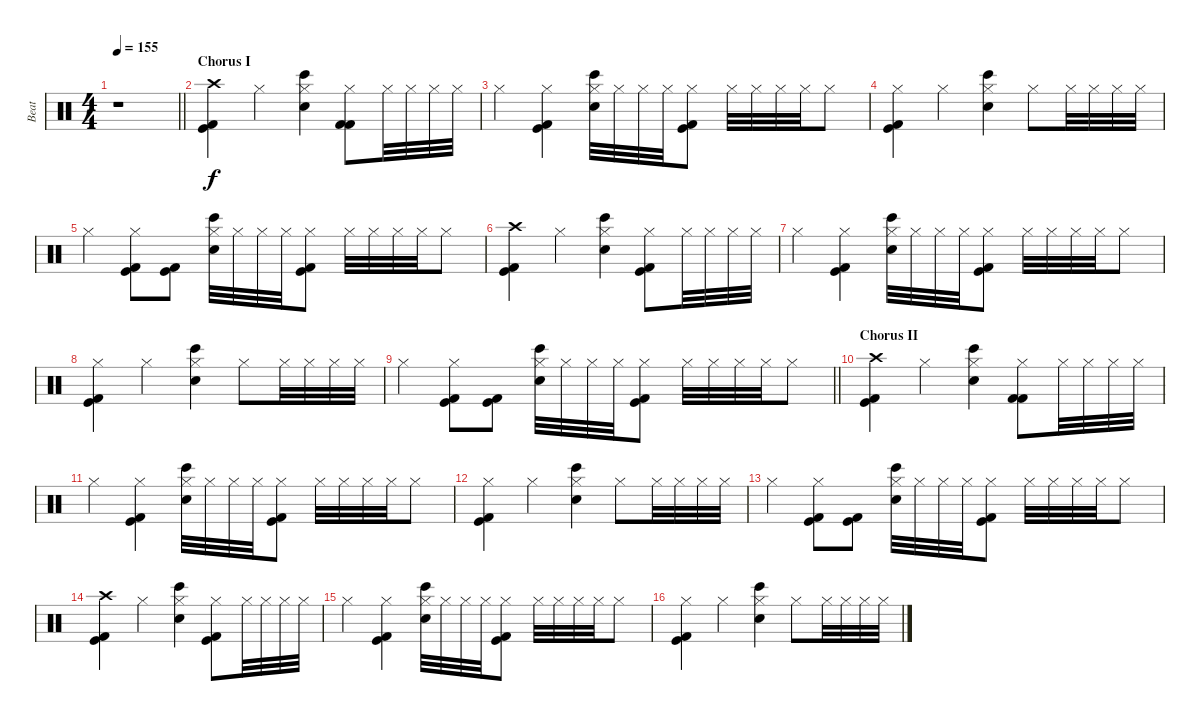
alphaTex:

\track ("Beat" "Beat") {instrument percussion}
\staff {score}
\articulation defaults
\ts (4 4)
\tempo 155
\clef neutral
\barLineRight lightlight
\ks c
r.1{dy f} |
\section ("" "Chorus I")
("Crash high (hit)" "Kick (hit)" "Kick (hit) 2").4 "Hi-Hat (closed)".4 ("Hi-Hat (closed)" "Hand Clap (hit)" "Bongo High (hit)").4 ("Hi-Hat (closed)" "Kick (hit) 2" "Kick (hit) 2").8 "Hi-Hat (closed)".32 "Hi-Hat (closed)".32 "Hi-Hat (closed)".32 "Hi-Hat (closed)".32 |
"Hi-Hat (closed)".4 ("Hi-Hat (closed)" "Kick (hit)" "Kick (hit) 2").4 ("Hi-Hat (closed)" "Hand Clap (hit)" "Bongo High (hit)").32 "Hi-Hat (closed)".32 "Hi-Hat (closed)".32 "Hi-Hat (closed)".32 ("Hi-Hat (closed)" "Kick (hit)" "Kick (hit) 2").8 "Hi-Hat (closed)".32 "Hi-Hat (closed)".32 "Hi-Hat (closed)".32 "Hi-Hat (closed)".32 "Hi-Hat (closed)".8 |
("Hi-Hat (closed)" "Kick (hit)" "Kick (hit) 2").4 "Hi-Hat (closed)".4 ("Hi-Hat (closed)" "Hand Clap (hit)" "Bongo High (hit)").4 "Hi-Hat (closed)".8 "Hi-Hat (closed)".32 "Hi-Hat (closed)".32 "Hi-Hat (closed)".32 "Hi-Hat (closed)".32 |
"Hi-Hat (closed)".4 ("Hi-Hat (closed)" "Kick (hit)" "Kick (hit) 2").8 ("Kick (hit)" "Kick (hit) 2").8 ("Hi-Hat (closed)" "Hand Clap (hit)" "Bongo High (hit)").32 "Hi-Hat (closed)".32 "Hi-Hat (closed)".32 "Hi-Hat (closed)".32 ("Hi-Hat (closed)" "Kick (hit)" "Kick (hit) 2").8 "Hi-Hat (closed)".32 "Hi-Hat (closed)".32 "Hi-Hat (closed)".32 "Hi-Hat (closed)".32 "Hi-Hat (closed)".8 |
("Crash high (hit)" "Kick (hit)" "Kick (hit) 2").4 "Hi-Hat (closed)".4 ("Hi-Hat (closed)" "Hand Clap (hit)" "Bongo High (hit)").4 ("Hi-Hat (closed)" "Kick (hit)" "Kick (hit) 2").8 "Hi-Hat (closed)".32 "Hi-Hat (closed)".32 "Hi-Hat (closed)".32 "Hi-Hat (closed)".32 |
"Hi-Hat (closed)".4 ("Hi-Hat (closed)" "Kick (hit)" "Kick (hit) 2").4 ("Hi-Hat (closed)" "Hand Clap (hit)" "Bongo High (hit)").32 "Hi-Hat (closed)".32 "Hi-Hat (closed)".32 "Hi-Hat (closed)".32 ("Hi-Hat (closed)" "Kick (hit)" "Kick (hit) 2").8 "Hi-Hat (closed)".32 "Hi-Hat (closed)".32 "Hi-Hat (closed)".32 "Hi-Hat (closed)".32 "Hi-Hat (closed)".8 |
("Hi-Hat (closed)" "Kick (hit)" "Kick (hit) 2").4 "Hi-Hat (closed)".4 ("Hi-Hat (closed)" "Hand Clap (hit)" "Bongo High (hit)").4 "Hi-Hat (closed)".8 "Hi-Hat (closed)".32 "Hi-Hat (closed)".32 "Hi-Hat (closed)".32 "Hi-Hat (closed)".32 |
\barLineRight lightlight "Hi-Hat (closed)".4
("Hi-Hat (closed)" "Kick (hit)" "Kick (hit) 2").8 ("Kick (hit)" "Kick (hit) 2").8 ("Hi-Hat (closed)" "Hand Clap (hit)" "Bongo High (hit)").32 "Hi-Hat (closed)".32 "Hi-Hat (closed)".32 "Hi-Hat (closed)".32 ("Hi-Hat (closed)" "Kick (hit)" "Kick (hit) 2").8 "Hi-Hat (closed)".32 "Hi-Hat (closed)".32 "Hi-Hat (closed)".32 "Hi-Hat (closed)".32 "Hi-Hat (closed)".8 |
\section ("" "Chorus II")
("Crash high (hit)" "Kick (hit)" "Kick (hit) 2").4 "Hi-Hat (closed)".4 ("Hi-Hat (closed)" "Hand Clap (hit)" "Bongo High (hit)").4 ("Hi-Hat (closed)" "Kick (hit) 2" "Kick (hit) 2").8 "Hi-Hat (closed)".32 "Hi-Hat (closed)".32 "Hi-Hat (closed)".32 "Hi-Hat (closed)".32 |
"Hi-Hat (closed)".4 ("Hi-Hat (closed)" "Kick (hit)" "Kick (hit) 2").4 ("Hi-Hat (closed)" "Hand Clap (hit)" "Bongo High (hit)").32 "Hi-Hat (closed)".32 "Hi-Hat (closed)".32 "Hi-Hat (closed)".32 ("Hi-Hat (closed)" "Kick (hit)" "Kick (hit) 2").8 "Hi-Hat (closed)".32 "Hi-Hat (closed)".32 "Hi-Hat (closed)".32 "Hi-Hat (closed)".32 "Hi-Hat (closed)".8 |
("Hi-Hat (closed)" "Kick (hit)" "Kick (hit) 2").4 "Hi-Hat (closed)".4 ("Hi-Hat (closed)" "Hand Clap (hit)" "Bongo High (hit)").4 "Hi-Hat (closed)".8 "Hi-Hat (closed)".32 "Hi-Hat (closed)".32 "Hi-Hat (closed)".32 "Hi-Hat (closed)".32 |
"Hi-Hat (closed)".4 ("Hi-Hat (closed)" "Kick (hit)" "Kick (hit) 2").8 ("Kick (hit)" "Kick (hit) 2").8 ("Hi-Hat (closed)" "Hand Clap (hit)" "Bongo High (hit)").32 "Hi-Hat (closed)".32 "Hi-Hat (closed)".32 "Hi-Hat (closed)".32 ("Hi-Hat (closed)" "Kick (hit)" "Kick (hit) 2").8 "Hi-Hat (closed)".32 "Hi-Hat (closed)".32 "Hi-Hat (closed)".32 "Hi-Hat (closed)".32 "Hi-Hat (closed)".8 |
("Crash high (hit)" "Kick (hit)" "Kick (hit) 2").4 "Hi-Hat (closed)".4 ("Hi-Hat (closed)" "Hand Clap (hit)" "Bongo High (hit)").4 ("Hi-Hat (closed)" "Kick (hit)" "Kick (hit) 2").8 "Hi-Hat (closed)".32 "Hi-Hat (closed)".32 "Hi-Hat (closed)".32 "Hi-Hat (closed)".32 |
"Hi-Hat (closed)".4 ("Hi-Hat (closed)" "Kick (hit)" "Kick (hit) 2").4 ("Hi-Hat (closed)" "Hand Clap (hit)" "Bongo High (hit)").32 "Hi-Hat (closed)".32 "Hi-Hat (closed)".32 "Hi-Hat (closed)".32 ("Hi-Hat (closed)" "Kick (hit)" "Kick (hit) 2").8 "Hi-Hat (closed)".32 "Hi-Hat (closed)".32 "Hi-Hat (closed)".32 "Hi-Hat (closed)".32 "Hi-Hat (closed)".8 |
("Hi-Hat (closed)" "Kick (hit)" "Kick (hit) 2").4 "Hi-Hat (closed)".4 ("Hi-Hat (closed)" "Hand Clap (hit)" "Bongo High (hit)").4 "Hi-Hat (closed)".8 "Hi-Hat (closed)".32 "Hi-Hat (closed)".32 "Hi-Hat (closed)".32 "Hi-Hat (closed)".32
